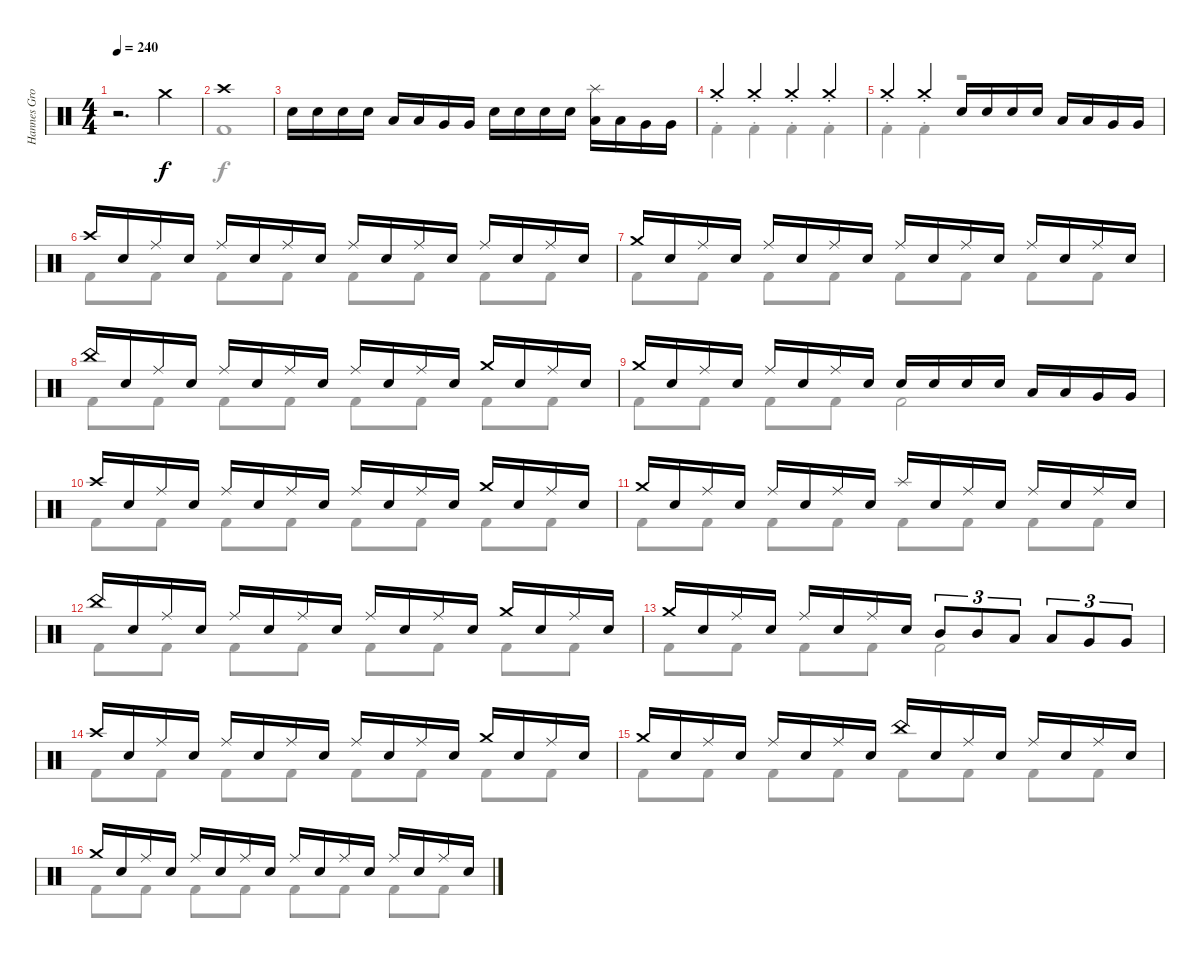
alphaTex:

\track ("Hannes Grossmann - drums" "Hannes Gro") {instrument percussion}
\staff {score}
\articulation defaults
\voice
\ts (4 4)
\tempo 240
\clef neutral
\ks c
r.2{d dy f} "Crash medium (hit)".4 |
"Crash high (hit)".1 |
"Electric Snare (hit)".16 "Electric Snare (hit)".16 "Electric Snare (hit)".16 "Electric Snare (hit)".16 "Low Tom (hit)".16 "Low Tom (hit)".16 "Very Low Tom (hit)".16 "Very Low Tom (hit)".16 "Electric Snare (hit)".16 "Electric Snare (hit)".16 "Electric Snare (hit)".16 "Electric Snare (hit)".16 ("Low Tom (hit)" "Splash (hit)").16 "Low Tom (hit)".16 "Very Low Tom (hit)".16 "Very Low Tom (hit)".16 |
"Crash medium (hit)"{st}.4 "Crash medium (hit)"{st}.4 "Crash medium (hit)"{st}.4 "Crash medium (hit)"{st}.4 |
"Crash medium (hit)"{st}.4 "Crash medium (hit)"{st}.4 "Electric Snare (hit)".16 "Electric Snare (hit)".16 "Electric Snare (hit)".16 "Electric Snare (hit)".16 "Low Tom (hit)".16 "Low Tom (hit)".16 "Very Low Tom (hit)".16 "Very Low Tom (hit)".16 |
"Crash high (hit)".16 "Electric Snare (hit)".16 "Ride (middle)".16 "Electric Snare (hit)".16 "Ride (middle)".16 "Electric Snare (hit)".16 "Ride (middle)".16 "Electric Snare (hit)".16 "Ride (middle)".16 "Electric Snare (hit)".16 "Ride (middle)".16 "Electric Snare (hit)".16 "Ride (middle)".16 "Electric Snare (hit)".16 "Ride (middle)".16 "Electric Snare (hit)".16 |
"Crash medium (hit)".16 "Electric Snare (hit)".16 "Ride (middle)".16 "Electric Snare (hit)".16 "Ride (middle)".16 "Electric Snare (hit)".16 "Ride (middle)".16 "Electric Snare (hit)".16 "Ride (middle)".16 "Electric Snare (hit)".16 "Ride (middle)".16 "Electric Snare (hit)".16 "Ride (middle)".16 "Electric Snare (hit)".16 "Ride (middle)".16 "Electric Snare (hit)".16 |
"China (hit)".16 "Electric Snare (hit)".16 "Ride (middle)".16 "Electric Snare (hit)".16 "Ride (middle)".16 "Electric Snare (hit)".16 "Ride (middle)".16 "Electric Snare (hit)".16 "Ride (middle)".16 "Electric Snare (hit)".16 "Ride (middle)".16 "Electric Snare (hit)".16 "Crash medium (hit)".16 "Electric Snare (hit)".16 "Ride (middle)".16 "Electric Snare (hit)".16 |
"Crash medium (hit)".16 "Electric Snare (hit)".16 "Ride (middle)".16 "Electric Snare (hit)".16 "Ride (middle)".16 "Electric Snare (hit)".16 "Ride (middle)".16 "Electric Snare (hit)".16 "Electric Snare (hit)".16 "Electric Snare (hit)".16 "Electric Snare (hit)".16 "Electric Snare (hit)".16 "Low Tom (hit)".16 "Low Tom (hit)".16 "Very Low Tom (hit)".16 "Very Low Tom (hit)".16 |
"Crash high (hit)".16 "Electric Snare (hit)".16 "Ride (middle)".16 "Electric Snare (hit)".16 "Ride (middle)".16 "Electric Snare (hit)".16 "Ride (middle)".16 "Electric Snare (hit)".16 "Ride (middle)".16 "Electric Snare (hit)".16 "Ride (middle)".16 "Electric Snare (hit)".16 "Crash medium (hit)".16 "Electric Snare (hit)".16 "Ride (middle)".16 "Electric Snare (hit)".16 |
"Crash medium (hit)".16 "Electric Snare (hit)".16 "Ride (middle)".16 "Electric Snare (hit)".16 "Ride (middle)".16 "Electric Snare (hit)".16 "Ride (middle)".16 "Electric Snare (hit)".16 "Splash (hit)".16 "Electric Snare (hit)".16 "Ride (middle)".16 "Electric Snare (hit)".16 "Ride (middle)".16 "Electric Snare (hit)".16 "Ride (middle)".16 "Electric Snare (hit)".16 |
"China (hit)".16 "Electric Snare (hit)".16 "Ride (middle)".16 "Electric Snare (hit)".16 "Ride (middle)".16 "Electric Snare (hit)".16 "Ride (middle)".16 "Electric Snare (hit)".16 "Ride (middle)".16 "Electric Snare (hit)".16 "Ride (middle)".16 "Electric Snare (hit)".16 "Crash medium (hit)".16 "Electric Snare (hit)".16 "Ride (middle)".16 "Electric Snare (hit)".16 |
"Crash medium (hit)".16 "Electric Snare (hit)".16 "Ride (middle)".16 "Electric Snare (hit)".16 "Ride (middle)".16 "Electric Snare (hit)".16 "Ride (middle)".16 "Electric Snare (hit)".16 "Mid Tom (hit)".8{tu (3 2)} "Mid Tom (hit)".8{tu (3 2)} "Low Tom (hit)".8{tu (3 2)} "Low Tom (hit)".8{tu (3 2)} "Very Low Tom (hit)".8{tu (3 2)} "Very Low Tom (hit)".8{tu (3 2)} |
"Crash high (hit)".16 "Electric Snare (hit)".16 "Ride (middle)".16 "Electric Snare (hit)".16 "Ride (middle)".16 "Electric Snare (hit)".16 "Ride (middle)".16 "Electric Snare (hit)".16 "Ride (middle)".16 "Electric Snare (hit)".16 "Ride (middle)".16 "Electric Snare (hit)".16 "Crash medium (hit)".16 "Electric Snare (hit)".16 "Ride (middle)".16 "Electric Snare (hit)".16 |
"Crash medium (hit)".16 "Electric Snare (hit)".16 "Ride (middle)".16 "Electric Snare (hit)".16 "Ride (middle)".16 "Electric Snare (hit)".16 "Ride (middle)".16 "Electric Snare (hit)".16 "China (hit)".16 "Electric Snare (hit)".16 "Ride (middle)".16 "Electric Snare (hit)".16 "Ride (middle)".16 "Electric Snare (hit)".16 "Ride (middle)".16 "Electric Snare (hit)".16 |
"Crash medium (hit)".16 "Electric Snare (hit)".16 "Ride (middle)".16 "Electric Snare (hit)".16 "Ride (middle)".16 "Electric Snare (hit)".16 "Ride (middle)".16 "Electric Snare (hit)".16 "Ride (middle)".16 "Electric Snare (hit)".16 "Ride (middle)".16 "Electric Snare (hit)".16 "Ride (middle)".16 "Electric Snare (hit)".16 "Ride (middle)".16 "Electric Snare (hit)".16
\voice
\clef neutral
\ottava regular
\simile none
\ks c
|
"Kick (hit) 2".1 |
|
"Kick (hit) 2"{st}.4 "Kick (hit) 2"{st}.4 "Kick (hit) 2"{st}.4 "Kick (hit) 2"{st}.4 |
"Kick (hit) 2"{st}.4 "Kick (hit) 2"{st}.4 r.2 |
"Kick (hit) 2".8 "Kick (hit) 2".8 "Kick (hit) 2".8 "Kick (hit) 2".8 "Kick (hit) 2".8 "Kick (hit) 2".8 "Kick (hit) 2".8 "Kick (hit) 2".8 |
"Kick (hit) 2".8 "Kick (hit) 2".8 "Kick (hit) 2".8 "Kick (hit) 2".8 "Kick (hit) 2".8 "Kick (hit) 2".8 "Kick (hit) 2".8 "Kick (hit) 2".8 |
"Kick (hit) 2".8 "Kick (hit) 2".8 "Kick (hit) 2".8 "Kick (hit) 2".8 "Kick (hit) 2".8 "Kick (hit) 2".8 "Kick (hit) 2".8 "Kick (hit) 2".8 |
"Kick (hit) 2".8 "Kick (hit) 2".8 "Kick (hit) 2".8 "Kick (hit) 2".8 "Kick (hit) 2".2 |
"Kick (hit) 2".8 "Kick (hit) 2".8 "Kick (hit) 2".8 "Kick (hit) 2".8 "Kick (hit) 2".8 "Kick (hit) 2".8 "Kick (hit) 2".8 "Kick (hit) 2".8 |
"Kick (hit) 2".8 "Kick (hit) 2".8 "Kick (hit) 2".8 "Kick (hit) 2".8 "Kick (hit) 2".8 "Kick (hit) 2".8 "Kick (hit) 2".8 "Kick (hit) 2".8 |
"Kick (hit) 2".8 "Kick (hit) 2".8 "Kick (hit) 2".8 "Kick (hit) 2".8 "Kick (hit) 2".8 "Kick (hit) 2".8 "Kick (hit) 2".8 "Kick (hit) 2".8 |
"Kick (hit) 2".8 "Kick (hit) 2".8 "Kick (hit) 2".8 "Kick (hit) 2".8 "Kick (hit) 2".2 |
"Kick (hit) 2".8 "Kick (hit) 2".8 "Kick (hit) 2".8 "Kick (hit) 2".8 "Kick (hit) 2".8 "Kick (hit) 2".8 "Kick (hit) 2".8 "Kick (hit) 2".8 |
"Kick (hit) 2".8 "Kick (hit) 2".8 "Kick (hit) 2".8 "Kick (hit) 2".8 "Kick (hit) 2".8 "Kick (hit) 2".8 "Kick (hit) 2".8 "Kick (hit) 2".8 |
"Kick (hit) 2".8 "Kick (hit) 2".8 "Kick (hit) 2".8 "Kick (hit) 2".8 "Kick (hit) 2".8 "Kick (hit) 2".8 "Kick (hit) 2".8 "Kick (hit) 2".8
